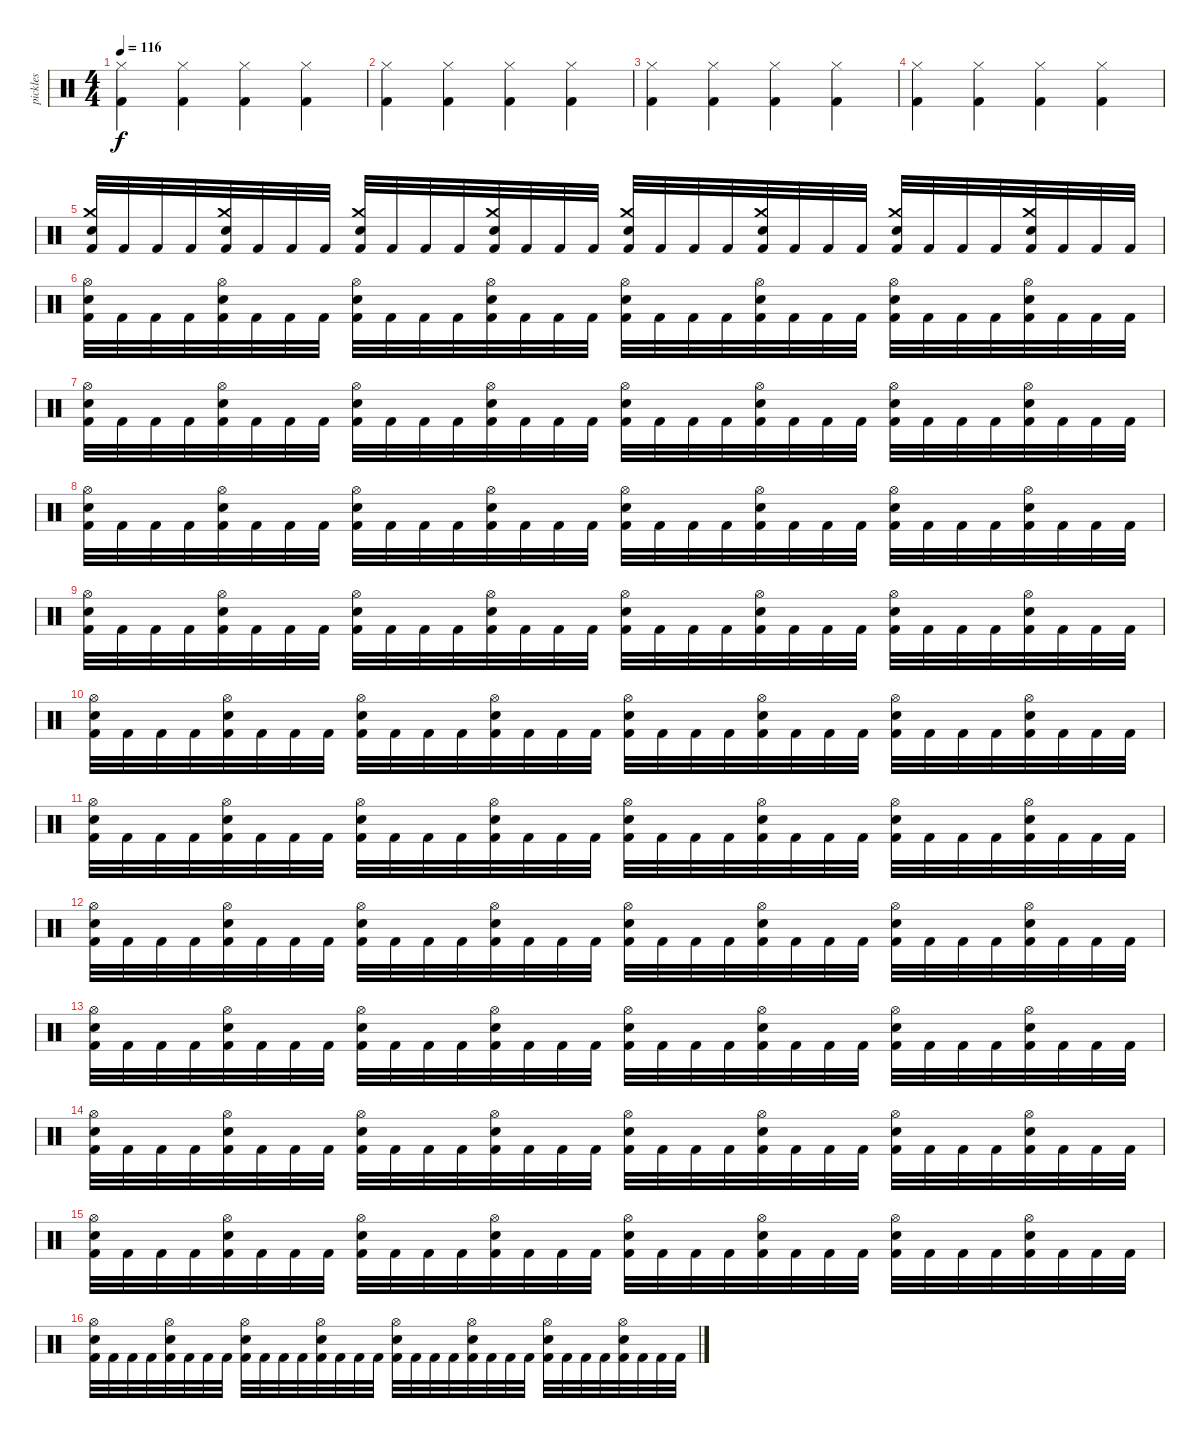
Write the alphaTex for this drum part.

\track ("pickles" "pickles") {instrument percussion}
\staff {score}
\articulation defaults
\ts (4 4)
\tempo 116
\clef neutral
\ks c
("Hi-Hat (closed)" "Kick (hit) 2").4{dy f} ("Hi-Hat (closed)" "Kick (hit) 2").4 ("Hi-Hat (closed)" "Kick (hit) 2").4 ("Hi-Hat (closed)" "Kick (hit) 2").4 |
("Hi-Hat (closed)" "Kick (hit) 2").4 ("Hi-Hat (closed)" "Kick (hit) 2").4 ("Hi-Hat (closed)" "Kick (hit) 2").4 ("Hi-Hat (closed)" "Kick (hit) 2").4 |
("Hi-Hat (closed)" "Kick (hit) 2").4 ("Hi-Hat (closed)" "Kick (hit) 2").4 ("Hi-Hat (closed)" "Kick (hit) 2").4 ("Hi-Hat (closed)" "Kick (hit) 2").4 |
("Hi-Hat (closed)" "Kick (hit) 2").4 ("Hi-Hat (closed)" "Kick (hit) 2").4 ("Hi-Hat (closed)" "Kick (hit) 2").4 ("Hi-Hat (closed)" "Kick (hit) 2").4 |
("Crash medium (hit)" "Snare (hit) 2" "Kick (hit) 2").32 "Kick (hit) 2".32 "Kick (hit) 2".32 "Kick (hit) 2".32 ("Crash medium (hit)" "Snare (hit) 2" "Kick (hit) 2").32 "Kick (hit) 2".32 "Kick (hit) 2".32 "Kick (hit) 2".32 ("Crash medium (hit)" "Snare (hit) 2" "Kick (hit) 2").32 "Kick (hit) 2".32 "Kick (hit) 2".32 "Kick (hit) 2".32 ("Crash medium (hit)" "Snare (hit) 2" "Kick (hit) 2").32 "Kick (hit) 2".32 "Kick (hit) 2".32 "Kick (hit) 2".32 ("Crash medium (hit)" "Snare (hit) 2" "Kick (hit) 2").32 "Kick (hit) 2".32 "Kick (hit) 2".32 "Kick (hit) 2".32 ("Crash medium (hit)" "Snare (hit) 2" "Kick (hit) 2").32 "Kick (hit) 2".32 "Kick (hit) 2".32 "Kick (hit) 2".32 ("Crash medium (hit)" "Snare (hit) 2" "Kick (hit) 2").32 "Kick (hit) 2".32 "Kick (hit) 2".32 "Kick (hit) 2".32 ("Crash medium (hit)" "Snare (hit) 2" "Kick (hit) 2").32 "Kick (hit) 2".32 "Kick (hit) 2".32 "Kick (hit) 2".32 |
("Hi-Hat (open)" "Snare (hit) 2" "Kick (hit) 2").32 "Kick (hit) 2".32 "Kick (hit) 2".32 "Kick (hit) 2".32 ("Hi-Hat (open)" "Snare (hit) 2" "Kick (hit) 2").32 "Kick (hit) 2".32 "Kick (hit) 2".32 "Kick (hit) 2".32 ("Hi-Hat (open)" "Snare (hit) 2" "Kick (hit) 2").32 "Kick (hit) 2".32 "Kick (hit) 2".32 "Kick (hit) 2".32 ("Hi-Hat (open)" "Snare (hit) 2" "Kick (hit) 2").32 "Kick (hit) 2".32 "Kick (hit) 2".32 "Kick (hit) 2".32 ("Hi-Hat (open)" "Snare (hit) 2" "Kick (hit) 2").32 "Kick (hit) 2".32 "Kick (hit) 2".32 "Kick (hit) 2".32 ("Hi-Hat (open)" "Snare (hit) 2" "Kick (hit) 2").32 "Kick (hit) 2".32 "Kick (hit) 2".32 "Kick (hit) 2".32 ("Hi-Hat (open)" "Snare (hit) 2" "Kick (hit) 2").32 "Kick (hit) 2".32 "Kick (hit) 2".32 "Kick (hit) 2".32 ("Hi-Hat (open)" "Snare (hit) 2" "Kick (hit) 2").32 "Kick (hit) 2".32 "Kick (hit) 2".32 "Kick (hit) 2".32 |
("Hi-Hat (open)" "Snare (hit) 2" "Kick (hit) 2").32 "Kick (hit) 2".32 "Kick (hit) 2".32 "Kick (hit) 2".32 ("Hi-Hat (open)" "Snare (hit) 2" "Kick (hit) 2").32 "Kick (hit) 2".32 "Kick (hit) 2".32 "Kick (hit) 2".32 ("Hi-Hat (open)" "Snare (hit) 2" "Kick (hit) 2").32 "Kick (hit) 2".32 "Kick (hit) 2".32 "Kick (hit) 2".32 ("Hi-Hat (open)" "Snare (hit) 2" "Kick (hit) 2").32 "Kick (hit) 2".32 "Kick (hit) 2".32 "Kick (hit) 2".32 ("Hi-Hat (open)" "Snare (hit) 2" "Kick (hit) 2").32 "Kick (hit) 2".32 "Kick (hit) 2".32 "Kick (hit) 2".32 ("Hi-Hat (open)" "Snare (hit) 2" "Kick (hit) 2").32 "Kick (hit) 2".32 "Kick (hit) 2".32 "Kick (hit) 2".32 ("Hi-Hat (open)" "Snare (hit) 2" "Kick (hit) 2").32 "Kick (hit) 2".32 "Kick (hit) 2".32 "Kick (hit) 2".32 ("Hi-Hat (open)" "Snare (hit) 2" "Kick (hit) 2").32 "Kick (hit) 2".32 "Kick (hit) 2".32 "Kick (hit) 2".32 |
("Hi-Hat (open)" "Snare (hit) 2" "Kick (hit) 2").32 "Kick (hit) 2".32 "Kick (hit) 2".32 "Kick (hit) 2".32 ("Hi-Hat (open)" "Snare (hit) 2" "Kick (hit) 2").32 "Kick (hit) 2".32 "Kick (hit) 2".32 "Kick (hit) 2".32 ("Hi-Hat (open)" "Snare (hit) 2" "Kick (hit) 2").32 "Kick (hit) 2".32 "Kick (hit) 2".32 "Kick (hit) 2".32 ("Hi-Hat (open)" "Snare (hit) 2" "Kick (hit) 2").32 "Kick (hit) 2".32 "Kick (hit) 2".32 "Kick (hit) 2".32 ("Hi-Hat (open)" "Snare (hit) 2" "Kick (hit) 2").32 "Kick (hit) 2".32 "Kick (hit) 2".32 "Kick (hit) 2".32 ("Hi-Hat (open)" "Snare (hit) 2" "Kick (hit) 2").32 "Kick (hit) 2".32 "Kick (hit) 2".32 "Kick (hit) 2".32 ("Hi-Hat (open)" "Snare (hit) 2" "Kick (hit) 2").32 "Kick (hit) 2".32 "Kick (hit) 2".32 "Kick (hit) 2".32 ("Hi-Hat (open)" "Snare (hit) 2" "Kick (hit) 2").32 "Kick (hit) 2".32 "Kick (hit) 2".32 "Kick (hit) 2".32 |
("Hi-Hat (open)" "Snare (hit) 2" "Kick (hit) 2").32 "Kick (hit) 2".32 "Kick (hit) 2".32 "Kick (hit) 2".32 ("Hi-Hat (open)" "Snare (hit) 2" "Kick (hit) 2").32 "Kick (hit) 2".32 "Kick (hit) 2".32 "Kick (hit) 2".32 ("Hi-Hat (open)" "Snare (hit) 2" "Kick (hit) 2").32 "Kick (hit) 2".32 "Kick (hit) 2".32 "Kick (hit) 2".32 ("Hi-Hat (open)" "Snare (hit) 2" "Kick (hit) 2").32 "Kick (hit) 2".32 "Kick (hit) 2".32 "Kick (hit) 2".32 ("Hi-Hat (open)" "Snare (hit) 2" "Kick (hit) 2").32 "Kick (hit) 2".32 "Kick (hit) 2".32 "Kick (hit) 2".32 ("Hi-Hat (open)" "Snare (hit) 2" "Kick (hit) 2").32 "Kick (hit) 2".32 "Kick (hit) 2".32 "Kick (hit) 2".32 ("Hi-Hat (open)" "Snare (hit) 2" "Kick (hit) 2").32 "Kick (hit) 2".32 "Kick (hit) 2".32 "Kick (hit) 2".32 ("Hi-Hat (open)" "Snare (hit) 2" "Kick (hit) 2").32 "Kick (hit) 2".32 "Kick (hit) 2".32 "Kick (hit) 2".32 |
("Hi-Hat (open)" "Snare (hit) 2" "Kick (hit) 2").32 "Kick (hit) 2".32 "Kick (hit) 2".32 "Kick (hit) 2".32 ("Hi-Hat (open)" "Snare (hit) 2" "Kick (hit) 2").32 "Kick (hit) 2".32 "Kick (hit) 2".32 "Kick (hit) 2".32 ("Hi-Hat (open)" "Snare (hit) 2" "Kick (hit) 2").32 "Kick (hit) 2".32 "Kick (hit) 2".32 "Kick (hit) 2".32 ("Hi-Hat (open)" "Snare (hit) 2" "Kick (hit) 2").32 "Kick (hit) 2".32 "Kick (hit) 2".32 "Kick (hit) 2".32 ("Hi-Hat (open)" "Snare (hit) 2" "Kick (hit) 2").32 "Kick (hit) 2".32 "Kick (hit) 2".32 "Kick (hit) 2".32 ("Hi-Hat (open)" "Snare (hit) 2" "Kick (hit) 2").32 "Kick (hit) 2".32 "Kick (hit) 2".32 "Kick (hit) 2".32 ("Hi-Hat (open)" "Snare (hit) 2" "Kick (hit) 2").32 "Kick (hit) 2".32 "Kick (hit) 2".32 "Kick (hit) 2".32 ("Hi-Hat (open)" "Snare (hit) 2" "Kick (hit) 2").32 "Kick (hit) 2".32 "Kick (hit) 2".32 "Kick (hit) 2".32 |
("Hi-Hat (open)" "Snare (hit) 2" "Kick (hit) 2").32 "Kick (hit) 2".32 "Kick (hit) 2".32 "Kick (hit) 2".32 ("Hi-Hat (open)" "Snare (hit) 2" "Kick (hit) 2").32 "Kick (hit) 2".32 "Kick (hit) 2".32 "Kick (hit) 2".32 ("Hi-Hat (open)" "Snare (hit) 2" "Kick (hit) 2").32 "Kick (hit) 2".32 "Kick (hit) 2".32 "Kick (hit) 2".32 ("Hi-Hat (open)" "Snare (hit) 2" "Kick (hit) 2").32 "Kick (hit) 2".32 "Kick (hit) 2".32 "Kick (hit) 2".32 ("Hi-Hat (open)" "Snare (hit) 2" "Kick (hit) 2").32 "Kick (hit) 2".32 "Kick (hit) 2".32 "Kick (hit) 2".32 ("Hi-Hat (open)" "Snare (hit) 2" "Kick (hit) 2").32 "Kick (hit) 2".32 "Kick (hit) 2".32 "Kick (hit) 2".32 ("Hi-Hat (open)" "Snare (hit) 2" "Kick (hit) 2").32 "Kick (hit) 2".32 "Kick (hit) 2".32 "Kick (hit) 2".32 ("Hi-Hat (open)" "Snare (hit) 2" "Kick (hit) 2").32 "Kick (hit) 2".32 "Kick (hit) 2".32 "Kick (hit) 2".32 |
("Hi-Hat (open)" "Snare (hit) 2" "Kick (hit) 2").32 "Kick (hit) 2".32 "Kick (hit) 2".32 "Kick (hit) 2".32 ("Hi-Hat (open)" "Snare (hit) 2" "Kick (hit) 2").32 "Kick (hit) 2".32 "Kick (hit) 2".32 "Kick (hit) 2".32 ("Hi-Hat (open)" "Snare (hit) 2" "Kick (hit) 2").32 "Kick (hit) 2".32 "Kick (hit) 2".32 "Kick (hit) 2".32 ("Hi-Hat (open)" "Snare (hit) 2" "Kick (hit) 2").32 "Kick (hit) 2".32 "Kick (hit) 2".32 "Kick (hit) 2".32 ("Hi-Hat (open)" "Snare (hit) 2" "Kick (hit) 2").32 "Kick (hit) 2".32 "Kick (hit) 2".32 "Kick (hit) 2".32 ("Hi-Hat (open)" "Snare (hit) 2" "Kick (hit) 2").32 "Kick (hit) 2".32 "Kick (hit) 2".32 "Kick (hit) 2".32 ("Hi-Hat (open)" "Snare (hit) 2" "Kick (hit) 2").32 "Kick (hit) 2".32 "Kick (hit) 2".32 "Kick (hit) 2".32 ("Hi-Hat (open)" "Snare (hit) 2" "Kick (hit) 2").32 "Kick (hit) 2".32 "Kick (hit) 2".32 "Kick (hit) 2".32 |
("Hi-Hat (open)" "Snare (hit) 2" "Kick (hit) 2").32 "Kick (hit) 2".32 "Kick (hit) 2".32 "Kick (hit) 2".32 ("Hi-Hat (open)" "Snare (hit) 2" "Kick (hit) 2").32 "Kick (hit) 2".32 "Kick (hit) 2".32 "Kick (hit) 2".32 ("Hi-Hat (open)" "Snare (hit) 2" "Kick (hit) 2").32 "Kick (hit) 2".32 "Kick (hit) 2".32 "Kick (hit) 2".32 ("Hi-Hat (open)" "Snare (hit) 2" "Kick (hit) 2").32 "Kick (hit) 2".32 "Kick (hit) 2".32 "Kick (hit) 2".32 ("Hi-Hat (open)" "Snare (hit) 2" "Kick (hit) 2").32 "Kick (hit) 2".32 "Kick (hit) 2".32 "Kick (hit) 2".32 ("Hi-Hat (open)" "Snare (hit) 2" "Kick (hit) 2").32 "Kick (hit) 2".32 "Kick (hit) 2".32 "Kick (hit) 2".32 ("Hi-Hat (open)" "Snare (hit) 2" "Kick (hit) 2").32 "Kick (hit) 2".32 "Kick (hit) 2".32 "Kick (hit) 2".32 ("Hi-Hat (open)" "Snare (hit) 2" "Kick (hit) 2").32 "Kick (hit) 2".32 "Kick (hit) 2".32 "Kick (hit) 2".32 |
("Hi-Hat (open)" "Snare (hit) 2" "Kick (hit) 2").32 "Kick (hit) 2".32 "Kick (hit) 2".32 "Kick (hit) 2".32 ("Hi-Hat (open)" "Snare (hit) 2" "Kick (hit) 2").32 "Kick (hit) 2".32 "Kick (hit) 2".32 "Kick (hit) 2".32 ("Hi-Hat (open)" "Snare (hit) 2" "Kick (hit) 2").32 "Kick (hit) 2".32 "Kick (hit) 2".32 "Kick (hit) 2".32 ("Hi-Hat (open)" "Snare (hit) 2" "Kick (hit) 2").32 "Kick (hit) 2".32 "Kick (hit) 2".32 "Kick (hit) 2".32 ("Hi-Hat (open)" "Snare (hit) 2" "Kick (hit) 2").32 "Kick (hit) 2".32 "Kick (hit) 2".32 "Kick (hit) 2".32 ("Hi-Hat (open)" "Snare (hit) 2" "Kick (hit) 2").32 "Kick (hit) 2".32 "Kick (hit) 2".32 "Kick (hit) 2".32 ("Hi-Hat (open)" "Snare (hit) 2" "Kick (hit) 2").32 "Kick (hit) 2".32 "Kick (hit) 2".32 "Kick (hit) 2".32 ("Hi-Hat (open)" "Snare (hit) 2" "Kick (hit) 2").32 "Kick (hit) 2".32 "Kick (hit) 2".32 "Kick (hit) 2".32 |
("Hi-Hat (open)" "Snare (hit) 2" "Kick (hit) 2").32 "Kick (hit) 2".32 "Kick (hit) 2".32 "Kick (hit) 2".32 ("Hi-Hat (open)" "Snare (hit) 2" "Kick (hit) 2").32 "Kick (hit) 2".32 "Kick (hit) 2".32 "Kick (hit) 2".32 ("Hi-Hat (open)" "Snare (hit) 2" "Kick (hit) 2").32 "Kick (hit) 2".32 "Kick (hit) 2".32 "Kick (hit) 2".32 ("Hi-Hat (open)" "Snare (hit) 2" "Kick (hit) 2").32 "Kick (hit) 2".32 "Kick (hit) 2".32 "Kick (hit) 2".32 ("Hi-Hat (open)" "Snare (hit) 2" "Kick (hit) 2").32 "Kick (hit) 2".32 "Kick (hit) 2".32 "Kick (hit) 2".32 ("Hi-Hat (open)" "Snare (hit) 2" "Kick (hit) 2").32 "Kick (hit) 2".32 "Kick (hit) 2".32 "Kick (hit) 2".32 ("Hi-Hat (open)" "Snare (hit) 2" "Kick (hit) 2").32 "Kick (hit) 2".32 "Kick (hit) 2".32 "Kick (hit) 2".32 ("Hi-Hat (open)" "Snare (hit) 2" "Kick (hit) 2").32 "Kick (hit) 2".32 "Kick (hit) 2".32 "Kick (hit) 2".32 |
("Hi-Hat (open)" "Snare (hit) 2" "Kick (hit) 2").32 "Kick (hit) 2".32 "Kick (hit) 2".32 "Kick (hit) 2".32 ("Hi-Hat (open)" "Snare (hit) 2" "Kick (hit) 2").32 "Kick (hit) 2".32 "Kick (hit) 2".32 "Kick (hit) 2".32 ("Hi-Hat (open)" "Snare (hit) 2" "Kick (hit) 2").32 "Kick (hit) 2".32 "Kick (hit) 2".32 "Kick (hit) 2".32 ("Hi-Hat (open)" "Snare (hit) 2" "Kick (hit) 2").32 "Kick (hit) 2".32 "Kick (hit) 2".32 "Kick (hit) 2".32 ("Hi-Hat (open)" "Snare (hit) 2" "Kick (hit) 2").32 "Kick (hit) 2".32 "Kick (hit) 2".32 "Kick (hit) 2".32 ("Hi-Hat (open)" "Snare (hit) 2" "Kick (hit) 2").32 "Kick (hit) 2".32 "Kick (hit) 2".32 "Kick (hit) 2".32 ("Hi-Hat (open)" "Snare (hit) 2" "Kick (hit) 2").32 "Kick (hit) 2".32 "Kick (hit) 2".32 "Kick (hit) 2".32 ("Hi-Hat (open)" "Snare (hit) 2" "Kick (hit) 2").32 "Kick (hit) 2".32 "Kick (hit) 2".32 "Kick (hit) 2".32
